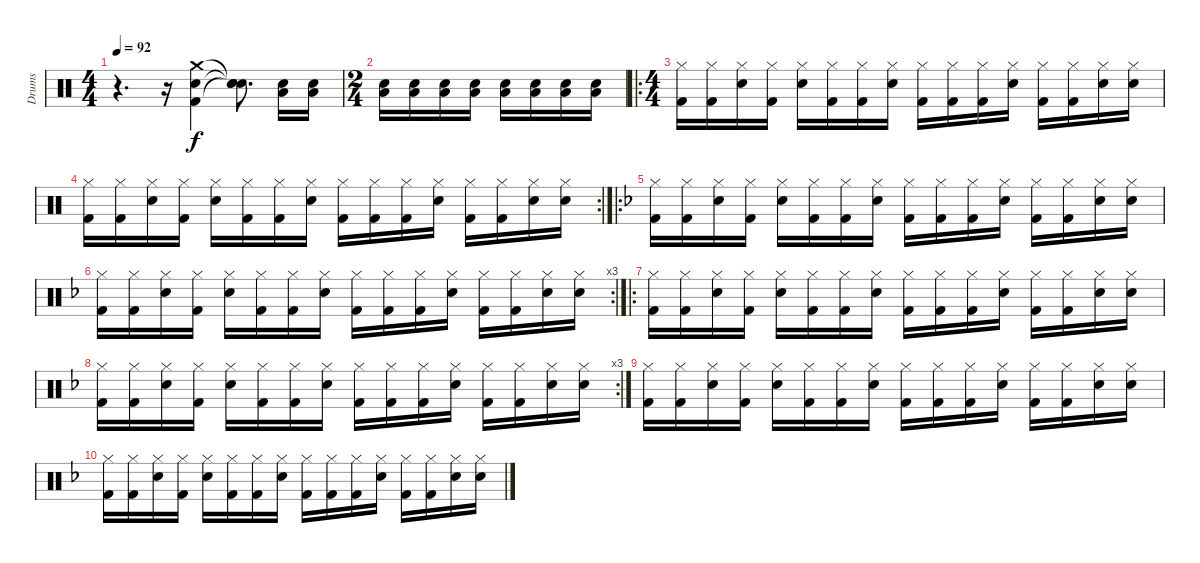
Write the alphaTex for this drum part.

\track ("Drums" "Drums") {instrument percussion}
\staff {score}
\articulation defaults
\ts (4 4)
\tempo 92
\clef neutral
\ks c
r.4{d dy f} r.16 ("Crash medium (hit)" "Electric Snare (hit)" "Kick (hit) 2").4 ("Snare (hit)"{t} "Snare (hit)"{t} "Snare (hit)"{t}).8{d} ("Low Floor Tom (hit)" "Electric Snare (hit)").16 ("Low Floor Tom (hit)" "Electric Snare (hit)").16 |
\ts (2 4)
("Low Floor Tom (hit)" "Electric Snare (hit)").16 ("Low Floor Tom (hit)" "Electric Snare (hit)").16 ("Low Floor Tom (hit)" "Electric Snare (hit)").16 ("Low Floor Tom (hit)" "Electric Snare (hit)").16 ("Low Floor Tom (hit)" "Electric Snare (hit)").16 ("Low Floor Tom (hit)" "Electric Snare (hit)").16 ("Low Floor Tom (hit)" "Electric Snare (hit)").16 ("Low Floor Tom (hit)" "Electric Snare (hit)").16 |
\ro
\ts (4 4)
("Hi-Hat (closed)" "Kick (hit) 2").16 ("Hi-Hat (closed)" "Kick (hit) 2").16 ("Hi-Hat (closed)" "Electric Snare (hit)").16 ("Hi-Hat (closed)" "Kick (hit) 2").16 ("Hi-Hat (closed)" "Electric Snare (hit)").16 ("Hi-Hat (closed)" "Kick (hit) 2").16 ("Hi-Hat (closed)" "Kick (hit) 2").16 ("Hi-Hat (closed)" "Electric Snare (hit)").16 ("Hi-Hat (closed)" "Kick (hit) 2").16 ("Hi-Hat (closed)" "Kick (hit) 2").16 ("Hi-Hat (closed)" "Kick (hit) 2").16 ("Hi-Hat (closed)" "Electric Snare (hit)").16 ("Hi-Hat (closed)" "Kick (hit) 2").16 ("Hi-Hat (closed)" "Kick (hit) 2").16 ("Hi-Hat (closed)" "Electric Snare (hit)").16 ("Hi-Hat (closed)" "Electric Snare (hit)").16 |
\rc 2
("Hi-Hat (closed)" "Kick (hit) 2").16 ("Hi-Hat (closed)" "Kick (hit) 2").16 ("Hi-Hat (closed)" "Electric Snare (hit)").16 ("Hi-Hat (closed)" "Kick (hit) 2").16 ("Hi-Hat (closed)" "Electric Snare (hit)").16 ("Hi-Hat (closed)" "Kick (hit) 2").16 ("Hi-Hat (closed)" "Kick (hit) 2").16 ("Hi-Hat (closed)" "Electric Snare (hit)").16 ("Hi-Hat (closed)" "Kick (hit) 2").16 ("Hi-Hat (closed)" "Kick (hit) 2").16 ("Hi-Hat (closed)" "Kick (hit) 2").16 ("Hi-Hat (closed)" "Electric Snare (hit)").16 ("Hi-Hat (closed)" "Kick (hit) 2").16 ("Hi-Hat (closed)" "Kick (hit) 2").16 ("Hi-Hat (closed)" "Electric Snare (hit)").16 ("Hi-Hat (closed)" "Electric Snare (hit)").16 |
\ro
\ks f
("Hi-Hat (closed)" "Kick (hit) 2").16 ("Hi-Hat (closed)" "Kick (hit) 2").16 ("Hi-Hat (closed)" "Electric Snare (hit)").16 ("Hi-Hat (closed)" "Kick (hit) 2").16 ("Hi-Hat (closed)" "Electric Snare (hit)").16 ("Hi-Hat (closed)" "Kick (hit) 2").16 ("Hi-Hat (closed)" "Kick (hit) 2").16 ("Hi-Hat (closed)" "Electric Snare (hit)").16 ("Hi-Hat (closed)" "Kick (hit) 2").16 ("Hi-Hat (closed)" "Kick (hit) 2").16 ("Hi-Hat (closed)" "Kick (hit) 2").16 ("Hi-Hat (closed)" "Electric Snare (hit)").16 ("Hi-Hat (closed)" "Kick (hit) 2").16 ("Hi-Hat (closed)" "Kick (hit) 2").16 ("Hi-Hat (closed)" "Electric Snare (hit)").16 ("Hi-Hat (closed)" "Electric Snare (hit)").16 |
\rc 3
("Hi-Hat (closed)" "Kick (hit) 2").16 ("Hi-Hat (closed)" "Kick (hit) 2").16 ("Hi-Hat (closed)" "Electric Snare (hit)").16 ("Hi-Hat (closed)" "Kick (hit) 2").16 ("Hi-Hat (closed)" "Electric Snare (hit)").16 ("Hi-Hat (closed)" "Kick (hit) 2").16 ("Hi-Hat (closed)" "Kick (hit) 2").16 ("Hi-Hat (closed)" "Electric Snare (hit)").16 ("Hi-Hat (closed)" "Kick (hit) 2").16 ("Hi-Hat (closed)" "Kick (hit) 2").16 ("Hi-Hat (closed)" "Kick (hit) 2").16 ("Hi-Hat (closed)" "Electric Snare (hit)").16 ("Hi-Hat (closed)" "Kick (hit) 2").16 ("Hi-Hat (closed)" "Kick (hit) 2").16 ("Hi-Hat (closed)" "Electric Snare (hit)").16 ("Hi-Hat (closed)" "Electric Snare (hit)").16 |
\ro
("Hi-Hat (closed)" "Kick (hit) 2").16 ("Hi-Hat (closed)" "Kick (hit) 2").16 ("Hi-Hat (closed)" "Electric Snare (hit)").16 ("Hi-Hat (closed)" "Kick (hit) 2").16 ("Hi-Hat (closed)" "Electric Snare (hit)").16 ("Hi-Hat (closed)" "Kick (hit) 2").16 ("Hi-Hat (closed)" "Kick (hit) 2").16 ("Hi-Hat (closed)" "Electric Snare (hit)").16 ("Hi-Hat (closed)" "Kick (hit) 2").16 ("Hi-Hat (closed)" "Kick (hit) 2").16 ("Hi-Hat (closed)" "Kick (hit) 2").16 ("Hi-Hat (closed)" "Electric Snare (hit)").16 ("Hi-Hat (closed)" "Kick (hit) 2").16 ("Hi-Hat (closed)" "Kick (hit) 2").16 ("Hi-Hat (closed)" "Electric Snare (hit)").16 ("Hi-Hat (closed)" "Electric Snare (hit)").16 |
\rc 3
("Hi-Hat (closed)" "Kick (hit) 2").16 ("Hi-Hat (closed)" "Kick (hit) 2").16 ("Hi-Hat (closed)" "Electric Snare (hit)").16 ("Hi-Hat (closed)" "Kick (hit) 2").16 ("Hi-Hat (closed)" "Electric Snare (hit)").16 ("Hi-Hat (closed)" "Kick (hit) 2").16 ("Hi-Hat (closed)" "Kick (hit) 2").16 ("Hi-Hat (closed)" "Electric Snare (hit)").16 ("Hi-Hat (closed)" "Kick (hit) 2").16 ("Hi-Hat (closed)" "Kick (hit) 2").16 ("Hi-Hat (closed)" "Kick (hit) 2").16 ("Hi-Hat (closed)" "Electric Snare (hit)").16 ("Hi-Hat (closed)" "Kick (hit) 2").16 ("Hi-Hat (closed)" "Kick (hit) 2").16 ("Hi-Hat (closed)" "Electric Snare (hit)").16 ("Hi-Hat (closed)" "Electric Snare (hit)").16 |
("Hi-Hat (closed)" "Kick (hit) 2").16 ("Hi-Hat (closed)" "Kick (hit) 2").16 ("Hi-Hat (closed)" "Electric Snare (hit)").16 ("Hi-Hat (closed)" "Kick (hit) 2").16 ("Hi-Hat (closed)" "Electric Snare (hit)").16 ("Hi-Hat (closed)" "Kick (hit) 2").16 ("Hi-Hat (closed)" "Kick (hit) 2").16 ("Hi-Hat (closed)" "Electric Snare (hit)").16 ("Hi-Hat (closed)" "Kick (hit) 2").16 ("Hi-Hat (closed)" "Kick (hit) 2").16 ("Hi-Hat (closed)" "Kick (hit) 2").16 ("Hi-Hat (closed)" "Electric Snare (hit)").16 ("Hi-Hat (closed)" "Kick (hit) 2").16 ("Hi-Hat (closed)" "Kick (hit) 2").16 ("Hi-Hat (closed)" "Electric Snare (hit)").16 ("Hi-Hat (closed)" "Electric Snare (hit)").16 |
("Hi-Hat (closed)" "Kick (hit) 2").16 ("Hi-Hat (closed)" "Kick (hit) 2").16 ("Hi-Hat (closed)" "Electric Snare (hit)").16 ("Hi-Hat (closed)" "Kick (hit) 2").16 ("Hi-Hat (closed)" "Electric Snare (hit)").16 ("Hi-Hat (closed)" "Kick (hit) 2").16 ("Hi-Hat (closed)" "Kick (hit) 2").16 ("Hi-Hat (closed)" "Electric Snare (hit)").16 ("Hi-Hat (closed)" "Kick (hit) 2").16 ("Hi-Hat (closed)" "Kick (hit) 2").16 ("Hi-Hat (closed)" "Kick (hit) 2").16 ("Hi-Hat (closed)" "Electric Snare (hit)").16 ("Hi-Hat (closed)" "Kick (hit) 2").16 ("Hi-Hat (closed)" "Kick (hit) 2").16 ("Hi-Hat (closed)" "Electric Snare (hit)").16 ("Hi-Hat (closed)" "Electric Snare (hit)").16
